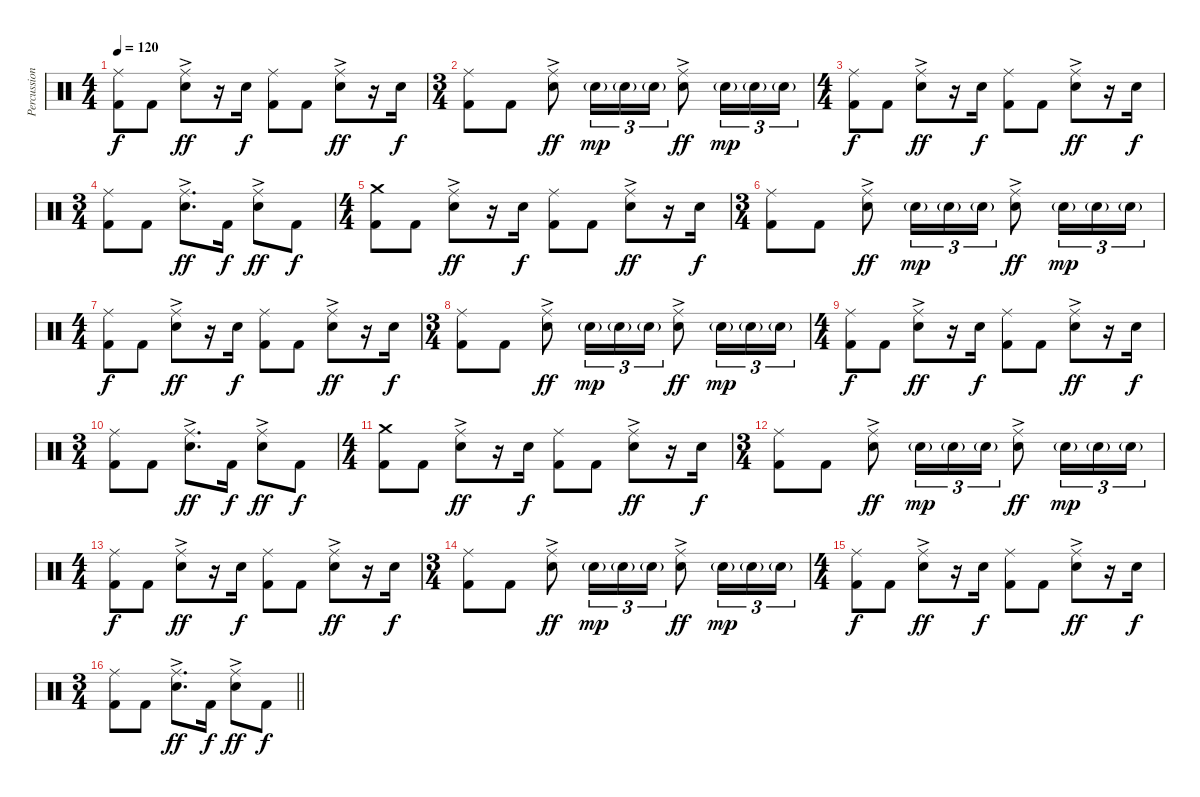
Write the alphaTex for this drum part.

\track ("Percussion" "Percussion") {instrument percussion}
\staff {score}
\articulation defaults
\ts (4 4)
\tempo 120
\clef neutral
\ks c
("Ride (middle)" "Kick (hit) 2").8{dy f} "Kick (hit) 2".8 ("Ride (middle)" "Electric Snare (hit)"{ac}).8{dy ff} r.16 "Electric Snare (hit)".16{dy f} ("Ride (middle)" "Kick (hit) 2").8 "Kick (hit) 2".8 ("Ride (middle)" "Electric Snare (hit)"{ac}).8{dy ff} r.16 "Electric Snare (hit)".16{dy f} |
\ts (3 4)
("Ride (middle)" "Kick (hit) 2").8 "Kick (hit) 2".8 ("Ride (middle)" "Electric Snare (hit)"{ac}).8{dy ff} "Electric Snare (hit)"{g}.16{tu (3 2) dy mp} "Electric Snare (hit)"{g}.16{tu (3 2)} "Electric Snare (hit)"{g}.16{tu (3 2)} ("Ride (middle)" "Electric Snare (hit)"{ac}).8{dy ff} "Electric Snare (hit)"{g}.16{tu (3 2) dy mp} "Electric Snare (hit)"{g}.16{tu (3 2)} "Electric Snare (hit)"{g}.16{tu (3 2)} |
\ts (4 4)
("Ride (middle)" "Kick (hit) 2").8{dy f} "Kick (hit) 2".8 ("Ride (middle)" "Electric Snare (hit)"{ac}).8{dy ff} r.16 "Electric Snare (hit)".16{dy f} ("Ride (middle)" "Kick (hit) 2").8 "Kick (hit) 2".8 ("Ride (middle)" "Electric Snare (hit)"{ac}).8{dy ff} r.16 "Electric Snare (hit)".16{dy f} |
\ts (3 4)
("Ride (middle)" "Kick (hit) 2").8 "Kick (hit) 2".8 ("Ride (middle)" "Electric Snare (hit)"{ac}).8{d dy ff} "Kick (hit) 2".16{dy f} ("Ride (middle)" "Electric Snare (hit)"{ac}).8{dy ff} "Kick (hit) 2".8{dy f} |
\ts (4 4)
("Crash medium (hit)" "Kick (hit) 2").8 "Kick (hit) 2".8 ("Ride (middle)" "Electric Snare (hit)"{ac}).8{dy ff} r.16 "Electric Snare (hit)".16{dy f} ("Ride (middle)" "Kick (hit) 2").8 "Kick (hit) 2".8 ("Ride (middle)" "Electric Snare (hit)"{ac}).8{dy ff} r.16 "Electric Snare (hit)".16{dy f} |
\ts (3 4)
("Ride (middle)" "Kick (hit) 2").8 "Kick (hit) 2".8 ("Ride (middle)" "Electric Snare (hit)"{ac}).8{dy ff} "Electric Snare (hit)"{g}.16{tu (3 2) dy mp} "Electric Snare (hit)"{g}.16{tu (3 2)} "Electric Snare (hit)"{g}.16{tu (3 2)} ("Ride (middle)" "Electric Snare (hit)"{ac}).8{dy ff} "Electric Snare (hit)"{g}.16{tu (3 2) dy mp} "Electric Snare (hit)"{g}.16{tu (3 2)} "Electric Snare (hit)"{g}.16{tu (3 2)} |
\ts (4 4)
("Ride (middle)" "Kick (hit) 2").8{dy f} "Kick (hit) 2".8 ("Ride (middle)" "Electric Snare (hit)"{ac}).8{dy ff} r.16 "Electric Snare (hit)".16{dy f} ("Ride (middle)" "Kick (hit) 2").8 "Kick (hit) 2".8 ("Ride (middle)" "Electric Snare (hit)"{ac}).8{dy ff} r.16 "Electric Snare (hit)".16{dy f} |
\ts (3 4)
("Ride (middle)" "Kick (hit) 2").8 "Kick (hit) 2".8 ("Ride (middle)" "Electric Snare (hit)"{ac}).8{dy ff} "Electric Snare (hit)"{g}.16{tu (3 2) dy mp} "Electric Snare (hit)"{g}.16{tu (3 2)} "Electric Snare (hit)"{g}.16{tu (3 2)} ("Ride (middle)" "Electric Snare (hit)"{ac}).8{dy ff} "Electric Snare (hit)"{g}.16{tu (3 2) dy mp} "Electric Snare (hit)"{g}.16{tu (3 2)} "Electric Snare (hit)"{g}.16{tu (3 2)} |
\ts (4 4)
("Ride (middle)" "Kick (hit) 2").8{dy f} "Kick (hit) 2".8 ("Ride (middle)" "Electric Snare (hit)"{ac}).8{dy ff} r.16 "Electric Snare (hit)".16{dy f} ("Ride (middle)" "Kick (hit) 2").8 "Kick (hit) 2".8 ("Ride (middle)" "Electric Snare (hit)"{ac}).8{dy ff} r.16 "Electric Snare (hit)".16{dy f} |
\ts (3 4)
("Ride (middle)" "Kick (hit) 2").8 "Kick (hit) 2".8 ("Ride (middle)" "Electric Snare (hit)"{ac}).8{d dy ff} "Kick (hit) 2".16{dy f} ("Ride (middle)" "Electric Snare (hit)"{ac}).8{dy ff} "Kick (hit) 2".8{dy f} |
\ts (4 4)
("Crash medium (hit)" "Kick (hit) 2").8 "Kick (hit) 2".8 ("Ride (middle)" "Electric Snare (hit)"{ac}).8{dy ff} r.16 "Electric Snare (hit)".16{dy f} ("Ride (middle)" "Kick (hit) 2").8 "Kick (hit) 2".8 ("Ride (middle)" "Electric Snare (hit)"{ac}).8{dy ff} r.16 "Electric Snare (hit)".16{dy f} |
\ts (3 4)
("Ride (middle)" "Kick (hit) 2").8 "Kick (hit) 2".8 ("Ride (middle)" "Electric Snare (hit)"{ac}).8{dy ff} "Electric Snare (hit)"{g}.16{tu (3 2) dy mp} "Electric Snare (hit)"{g}.16{tu (3 2)} "Electric Snare (hit)"{g}.16{tu (3 2)} ("Ride (middle)" "Electric Snare (hit)"{ac}).8{dy ff} "Electric Snare (hit)"{g}.16{tu (3 2) dy mp} "Electric Snare (hit)"{g}.16{tu (3 2)} "Electric Snare (hit)"{g}.16{tu (3 2)} |
\ts (4 4)
("Ride (middle)" "Kick (hit) 2").8{dy f} "Kick (hit) 2".8 ("Ride (middle)" "Electric Snare (hit)"{ac}).8{dy ff} r.16 "Electric Snare (hit)".16{dy f} ("Ride (middle)" "Kick (hit) 2").8 "Kick (hit) 2".8 ("Ride (middle)" "Electric Snare (hit)"{ac}).8{dy ff} r.16 "Electric Snare (hit)".16{dy f} |
\ts (3 4)
("Ride (middle)" "Kick (hit) 2").8 "Kick (hit) 2".8 ("Ride (middle)" "Electric Snare (hit)"{ac}).8{dy ff} "Electric Snare (hit)"{g}.16{tu (3 2) dy mp} "Electric Snare (hit)"{g}.16{tu (3 2)} "Electric Snare (hit)"{g}.16{tu (3 2)} ("Ride (middle)" "Electric Snare (hit)"{ac}).8{dy ff} "Electric Snare (hit)"{g}.16{tu (3 2) dy mp} "Electric Snare (hit)"{g}.16{tu (3 2)} "Electric Snare (hit)"{g}.16{tu (3 2)} |
\ts (4 4)
("Ride (middle)" "Kick (hit) 2").8{dy f} "Kick (hit) 2".8 ("Ride (middle)" "Electric Snare (hit)"{ac}).8{dy ff} r.16 "Electric Snare (hit)".16{dy f} ("Ride (middle)" "Kick (hit) 2").8 "Kick (hit) 2".8 ("Ride (middle)" "Electric Snare (hit)"{ac}).8{dy ff} r.16 "Electric Snare (hit)".16{dy f} |
\ts (3 4)
\barLineRight lightlight
("Ride (middle)" "Kick (hit) 2").8 "Kick (hit) 2".8 ("Ride (middle)" "Electric Snare (hit)"{ac}).8{d dy ff} "Kick (hit) 2".16{dy f} ("Ride (middle)" "Electric Snare (hit)"{ac}).8{dy ff} "Kick (hit) 2".8{dy f}
